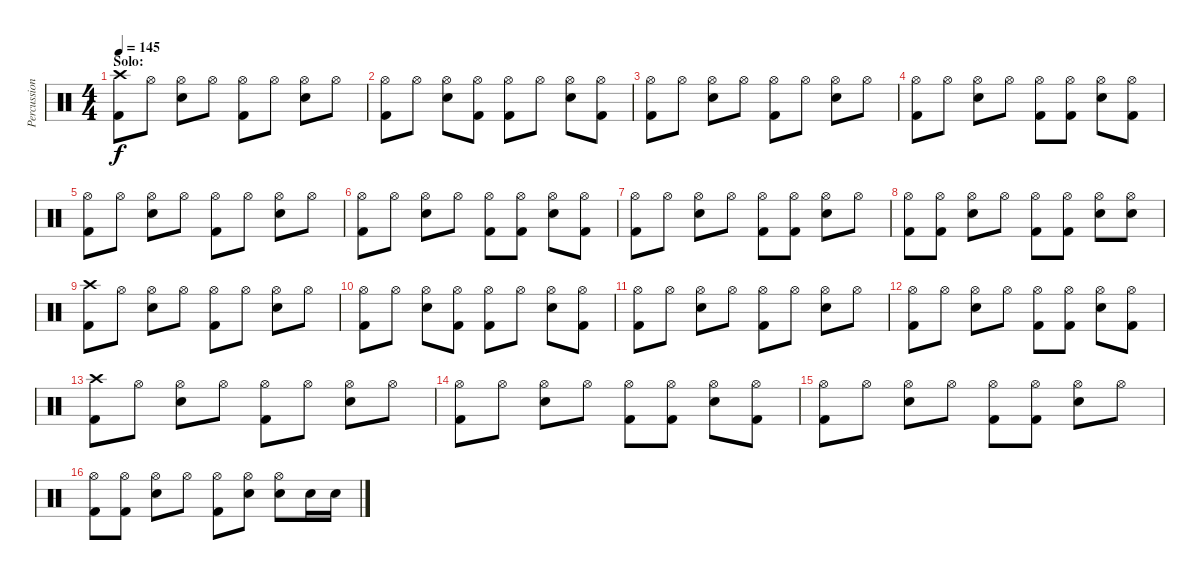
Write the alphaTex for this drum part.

\track ("Percussion" "Percussion") {instrument percussion}
\staff {score}
\articulation defaults
\ts (4 4)
\section ("" "Solo:")
\tempo 145
\clef neutral
\ks c
("Crash high (hit)" "Kick (hit) 2").8{dy f} "Hi-Hat (open)".8 ("Hi-Hat (open)" "Electric Snare (hit)").8 "Hi-Hat (open)".8 ("Hi-Hat (open)" "Kick (hit) 2").8 "Hi-Hat (open)".8 ("Hi-Hat (open)" "Electric Snare (hit)").8 "Hi-Hat (open)".8 |
("Hi-Hat (open)" "Kick (hit) 2").8 "Hi-Hat (open)".8 ("Hi-Hat (open)" "Electric Snare (hit)").8 ("Hi-Hat (open)" "Kick (hit) 2").8 ("Hi-Hat (open)" "Kick (hit) 2").8 "Hi-Hat (open)".8 ("Hi-Hat (open)" "Electric Snare (hit)").8 ("Hi-Hat (open)" "Kick (hit) 2").8 |
("Hi-Hat (open)" "Kick (hit) 2").8 "Hi-Hat (open)".8 ("Hi-Hat (open)" "Electric Snare (hit)").8 "Hi-Hat (open)".8 ("Hi-Hat (open)" "Kick (hit) 2").8 "Hi-Hat (open)".8 ("Hi-Hat (open)" "Electric Snare (hit)").8 "Hi-Hat (open)".8 |
("Hi-Hat (open)" "Kick (hit) 2").8 "Hi-Hat (open)".8 ("Hi-Hat (open)" "Electric Snare (hit)").8 "Hi-Hat (open)".8 ("Hi-Hat (open)" "Kick (hit) 2").8 ("Hi-Hat (open)" "Kick (hit) 2").8 ("Hi-Hat (open)" "Electric Snare (hit)").8 ("Hi-Hat (open)" "Kick (hit) 2").8 |
("Hi-Hat (open)" "Kick (hit) 2").8 "Hi-Hat (open)".8 ("Hi-Hat (open)" "Electric Snare (hit)").8 "Hi-Hat (open)".8 ("Hi-Hat (open)" "Kick (hit) 2").8 "Hi-Hat (open)".8 ("Hi-Hat (open)" "Electric Snare (hit)").8 "Hi-Hat (open)".8 |
("Hi-Hat (open)" "Kick (hit) 2").8 "Hi-Hat (open)".8 ("Hi-Hat (open)" "Electric Snare (hit)").8 "Hi-Hat (open)".8 ("Hi-Hat (open)" "Kick (hit) 2").8 ("Hi-Hat (open)" "Kick (hit) 2").8 ("Hi-Hat (open)" "Electric Snare (hit)").8 ("Hi-Hat (open)" "Kick (hit) 2").8 |
("Hi-Hat (open)" "Kick (hit) 2").8 "Hi-Hat (open)".8 ("Hi-Hat (open)" "Electric Snare (hit)").8 "Hi-Hat (open)".8 ("Hi-Hat (open)" "Kick (hit) 2").8 ("Hi-Hat (open)" "Kick (hit) 2").8 ("Hi-Hat (open)" "Electric Snare (hit)").8 "Hi-Hat (open)".8 |
("Hi-Hat (open)" "Kick (hit) 2").8 ("Hi-Hat (open)" "Kick (hit) 2").8 ("Hi-Hat (open)" "Electric Snare (hit)").8 "Hi-Hat (open)".8 ("Hi-Hat (open)" "Kick (hit) 2").8 ("Hi-Hat (open)" "Kick (hit) 2").8 ("Hi-Hat (open)" "Electric Snare (hit)").8 ("Hi-Hat (open)" "Electric Snare (hit)").8 |
("Crash high (hit)" "Kick (hit) 2").8 "Hi-Hat (open)".8 ("Hi-Hat (open)" "Electric Snare (hit)").8 "Hi-Hat (open)".8 ("Hi-Hat (open)" "Kick (hit) 2").8 "Hi-Hat (open)".8 ("Hi-Hat (open)" "Electric Snare (hit)").8 "Hi-Hat (open)".8 |
("Hi-Hat (open)" "Kick (hit) 2").8 "Hi-Hat (open)".8 ("Hi-Hat (open)" "Electric Snare (hit)").8 ("Hi-Hat (open)" "Kick (hit) 2").8 ("Hi-Hat (open)" "Kick (hit) 2").8 "Hi-Hat (open)".8 ("Hi-Hat (open)" "Electric Snare (hit)").8 ("Hi-Hat (open)" "Kick (hit) 2").8 |
("Hi-Hat (open)" "Kick (hit) 2").8 "Hi-Hat (open)".8 ("Hi-Hat (open)" "Electric Snare (hit)").8 "Hi-Hat (open)".8 ("Hi-Hat (open)" "Kick (hit) 2").8 "Hi-Hat (open)".8 ("Hi-Hat (open)" "Electric Snare (hit)").8 "Hi-Hat (open)".8 |
("Hi-Hat (open)" "Kick (hit) 2").8 "Hi-Hat (open)".8 ("Hi-Hat (open)" "Electric Snare (hit)").8 "Hi-Hat (open)".8 ("Hi-Hat (open)" "Kick (hit) 2").8 ("Hi-Hat (open)" "Kick (hit) 2").8 ("Hi-Hat (open)" "Electric Snare (hit)").8 ("Hi-Hat (open)" "Kick (hit) 2").8 |
("Crash high (hit)" "Kick (hit) 2").8 "Hi-Hat (open)".8 ("Hi-Hat (open)" "Electric Snare (hit)").8 "Hi-Hat (open)".8 ("Hi-Hat (open)" "Kick (hit) 2").8 "Hi-Hat (open)".8 ("Hi-Hat (open)" "Electric Snare (hit)").8 "Hi-Hat (open)".8 |
("Hi-Hat (open)" "Kick (hit) 2").8 "Hi-Hat (open)".8 ("Hi-Hat (open)" "Electric Snare (hit)").8 "Hi-Hat (open)".8 ("Hi-Hat (open)" "Kick (hit) 2").8 ("Hi-Hat (open)" "Kick (hit) 2").8 ("Hi-Hat (open)" "Electric Snare (hit)").8 ("Hi-Hat (open)" "Kick (hit) 2").8 |
("Hi-Hat (open)" "Kick (hit) 2").8 "Hi-Hat (open)".8 ("Hi-Hat (open)" "Electric Snare (hit)").8 "Hi-Hat (open)".8 ("Hi-Hat (open)" "Kick (hit) 2").8 ("Hi-Hat (open)" "Kick (hit) 2").8 ("Hi-Hat (open)" "Electric Snare (hit)").8 "Hi-Hat (open)".8 |
("Hi-Hat (open)" "Kick (hit) 2").8 ("Hi-Hat (open)" "Kick (hit) 2").8 ("Hi-Hat (open)" "Electric Snare (hit)").8 "Hi-Hat (open)".8 ("Hi-Hat (open)" "Kick (hit) 2").8 ("Hi-Hat (open)" "Electric Snare (hit)").8 ("Hi-Hat (open)" "Electric Snare (hit)").8 "Electric Snare (hit)".16 "Electric Snare (hit)".16
